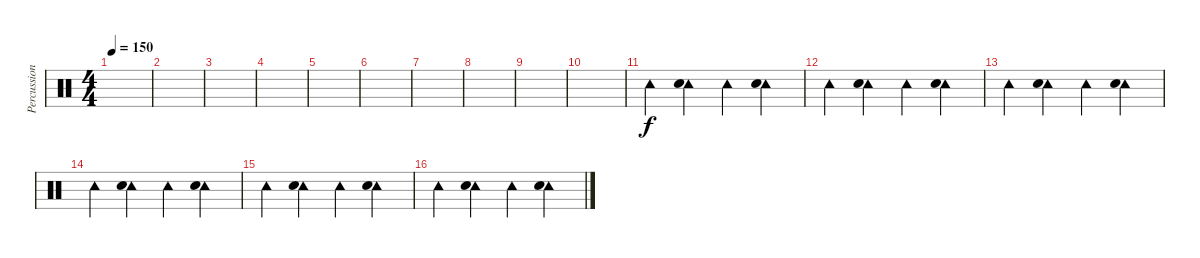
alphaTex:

\track ("Percussion" "Percussion") {instrument percussion}
\staff {score}
\articulation defaults
\ts (4 4)
\tempo 150
\clef neutral
\ks c
|
|
|
|
|
|
|
|
|
|
"Tambourine (hit)".4 ("Tambourine (hit)" "Hand Clap (hit)").4 "Tambourine (hit)".4 ("Tambourine (hit)" "Hand Clap (hit)").4 |
"Tambourine (hit)".4 ("Tambourine (hit)" "Hand Clap (hit)").4 "Tambourine (hit)".4 ("Tambourine (hit)" "Hand Clap (hit)").4 |
"Tambourine (hit)".4 ("Tambourine (hit)" "Hand Clap (hit)").4 "Tambourine (hit)".4 ("Tambourine (hit)" "Hand Clap (hit)").4 |
"Tambourine (hit)".4 ("Tambourine (hit)" "Hand Clap (hit)").4 "Tambourine (hit)".4 ("Tambourine (hit)" "Hand Clap (hit)").4 |
"Tambourine (hit)".4 ("Tambourine (hit)" "Hand Clap (hit)").4 "Tambourine (hit)".4 ("Tambourine (hit)" "Hand Clap (hit)").4 |
"Tambourine (hit)".4 ("Tambourine (hit)" "Hand Clap (hit)").4 "Tambourine (hit)".4 ("Tambourine (hit)" "Hand Clap (hit)").4
